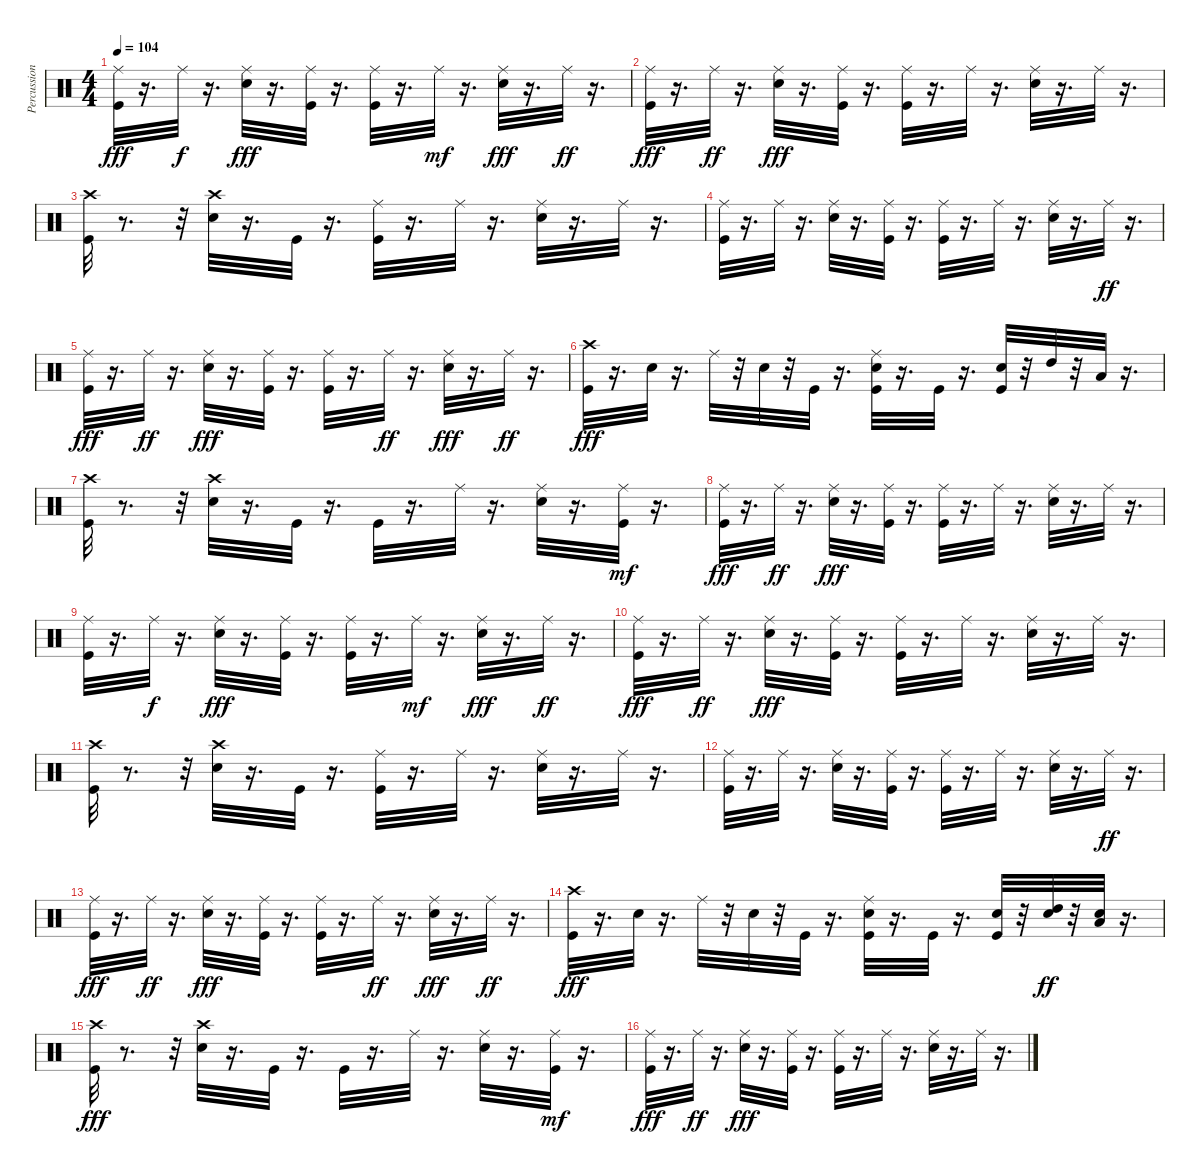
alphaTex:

\track ("Percussion" "Percussion") {instrument percussion}
\staff {score}
\articulation defaults
\ts (4 4)
\tempo 104
\clef neutral
\ks c
("Ride (middle)" "Kick (hit)").32{dy fff} r.16{d} "Ride (middle)".32{dy f} r.16{d} ("Ride (middle)" "Snare (hit) 2").32{dy fff} r.16{d} ("Ride (middle)" "Kick (hit)").32 r.16{d} ("Ride (middle)" "Kick (hit)").32 r.16{d} "Ride (middle)".32{dy mf} r.16{d} ("Ride (middle)" "Snare (hit) 2").32{dy fff} r.16{d} "Ride (middle)".32{dy ff} r.16{d} |
("Ride (middle)" "Kick (hit)").32{dy fff} r.16{d} "Ride (middle)".32{dy ff} r.16{d} ("Ride (middle)" "Snare (hit) 2").32{dy fff} r.16{d} ("Ride (middle)" "Kick (hit)").32 r.16{d} ("Ride (middle)" "Kick (hit)").32 r.16{d} "Ride (middle)".32 r.16{d} ("Ride (middle)" "Snare (hit) 2").32 r.16{d} "Ride (middle)".32 r.16{d} |
("Crash high (hit)" "Kick (hit)").32 r.8{d} r.32 ("Crash high (hit)" "Snare (hit) 2").32 r.16{d} "Kick (hit)".32 r.16{d} ("Ride (middle)" "Kick (hit)").32 r.16{d} "Ride (middle)".32 r.16{d} ("Ride (middle)" "Snare (hit) 2").32 r.16{d} "Ride (middle)".32 r.16{d} |
("Ride (middle)" "Kick (hit)").32 r.16{d} "Ride (middle)".32 r.16{d} ("Ride (middle)" "Snare (hit) 2").32 r.16{d} ("Ride (middle)" "Kick (hit)").32 r.16{d} ("Ride (middle)" "Kick (hit)").32 r.16{d} "Ride (middle)".32 r.16{d} ("Ride (middle)" "Snare (hit) 2").32 r.16{d} "Ride (middle)".32{dy ff} r.16{d} |
("Ride (middle)" "Kick (hit)").32{dy fff} r.16{d} "Ride (middle)".32{dy ff} r.16{d} ("Ride (middle)" "Snare (hit) 2").32{dy fff} r.16{d} ("Ride (middle)" "Kick (hit)").32 r.16{d} ("Ride (middle)" "Kick (hit)").32 r.16{d} "Ride (middle)".32{dy ff} r.16{d} ("Ride (middle)" "Snare (hit) 2").32{dy fff} r.16{d} "Ride (middle)".32{dy ff} r.16{d} |
("Crash high (hit)" "Kick (hit)").32{dy fff} r.16{d} "Snare (hit) 2".32 r.16{d} "Ride (middle)".32 r.32 "Snare (hit) 2".32 r.32 "Kick (hit)".32 r.16{d} ("Ride (middle)" "Snare (hit) 2" "Kick (hit)").32 r.16{d} "Kick (hit)".32 r.16{d} ("Snare (hit) 2" "Kick (hit)").32 r.32 "High Tom (hit)".32 r.32 "Low Tom (hit)".32 r.16{d} |
("Crash high (hit)" "Kick (hit)").32 r.8{d} r.32 ("Crash high (hit)" "Snare (hit) 2").32 r.16{d} "Kick (hit)".32 r.16{d} "Kick (hit)".32 r.16{d} "Ride (middle)".32 r.16{d} ("Ride (middle)" "Snare (hit) 2").32 r.16{d} ("Ride (middle)" "Kick (hit)").32{dy mf} r.16{d} |
("Ride (middle)" "Kick (hit)").32{dy fff} r.16{d} "Ride (middle)".32{dy ff} r.16{d} ("Ride (middle)" "Snare (hit) 2").32{dy fff} r.16{d} ("Ride (middle)" "Kick (hit)").32 r.16{d} ("Ride (middle)" "Kick (hit)").32 r.16{d} "Ride (middle)".32 r.16{d} ("Ride (middle)" "Snare (hit) 2").32 r.16{d} "Ride (middle)".32 r.16{d} |
("Ride (middle)" "Kick (hit)").32 r.16{d} "Ride (middle)".32{dy f} r.16{d} ("Ride (middle)" "Snare (hit) 2").32{dy fff} r.16{d} ("Ride (middle)" "Kick (hit)").32 r.16{d} ("Ride (middle)" "Kick (hit)").32 r.16{d} "Ride (middle)".32{dy mf} r.16{d} ("Ride (middle)" "Snare (hit) 2").32{dy fff} r.16{d} "Ride (middle)".32{dy ff} r.16{d} |
("Ride (middle)" "Kick (hit)").32{dy fff} r.16{d} "Ride (middle)".32{dy ff} r.16{d} ("Ride (middle)" "Snare (hit) 2").32{dy fff} r.16{d} ("Ride (middle)" "Kick (hit)").32 r.16{d} ("Ride (middle)" "Kick (hit)").32 r.16{d} "Ride (middle)".32 r.16{d} ("Ride (middle)" "Snare (hit) 2").32 r.16{d} "Ride (middle)".32 r.16{d} |
("Crash high (hit)" "Kick (hit)").32 r.8{d} r.32 ("Crash high (hit)" "Snare (hit) 2").32 r.16{d} "Kick (hit)".32 r.16{d} ("Ride (middle)" "Kick (hit)").32 r.16{d} "Ride (middle)".32 r.16{d} ("Ride (middle)" "Snare (hit) 2").32 r.16{d} "Ride (middle)".32 r.16{d} |
("Ride (middle)" "Kick (hit)").32 r.16{d} "Ride (middle)".32 r.16{d} ("Ride (middle)" "Snare (hit) 2").32 r.16{d} ("Ride (middle)" "Kick (hit)").32 r.16{d} ("Ride (middle)" "Kick (hit)").32 r.16{d} "Ride (middle)".32 r.16{d} ("Ride (middle)" "Snare (hit) 2").32 r.16{d} "Ride (middle)".32{dy ff} r.16{d} |
("Ride (middle)" "Kick (hit)").32{dy fff} r.16{d} "Ride (middle)".32{dy ff} r.16{d} ("Ride (middle)" "Snare (hit) 2").32{dy fff} r.16{d} ("Ride (middle)" "Kick (hit)").32 r.16{d} ("Ride (middle)" "Kick (hit)").32 r.16{d} "Ride (middle)".32{dy ff} r.16{d} ("Ride (middle)" "Snare (hit) 2").32{dy fff} r.16{d} "Ride (middle)".32{dy ff} r.16{d} |
("Crash high (hit)" "Kick (hit)").32{dy fff} r.16{d} "Snare (hit) 2".32 r.16{d} "Ride (middle)".32 r.32 "Snare (hit) 2".32 r.32 "Kick (hit)".32 r.16{d} ("Ride (middle)" "Snare (hit) 2" "Kick (hit)").32 r.16{d} "Kick (hit)".32 r.16{d} ("Snare (hit) 2" "Kick (hit)").32 r.32 ("High Tom (hit)" "Snare (hit) 2").32{dy ff} r.32 ("Low Tom (hit)" "Snare (hit) 2").32 r.16{d} |
("Crash high (hit)" "Kick (hit)").32{dy fff} r.8{d} r.32 ("Crash high (hit)" "Snare (hit) 2").32 r.16{d} "Kick (hit)".32 r.16{d} "Kick (hit)".32 r.16{d} "Ride (middle)".32 r.16{d} ("Ride (middle)" "Snare (hit) 2").32 r.16{d} ("Ride (middle)" "Kick (hit)").32{dy mf} r.16{d} |
("Ride (middle)" "Kick (hit)").32{dy fff} r.16{d} "Ride (middle)".32{dy ff} r.16{d} ("Ride (middle)" "Snare (hit) 2").32{dy fff} r.16{d} ("Ride (middle)" "Kick (hit)").32 r.16{d} ("Ride (middle)" "Kick (hit)").32 r.16{d} "Ride (middle)".32 r.16{d} ("Ride (middle)" "Snare (hit) 2").32 r.16{d} "Ride (middle)".32 r.16{d}
